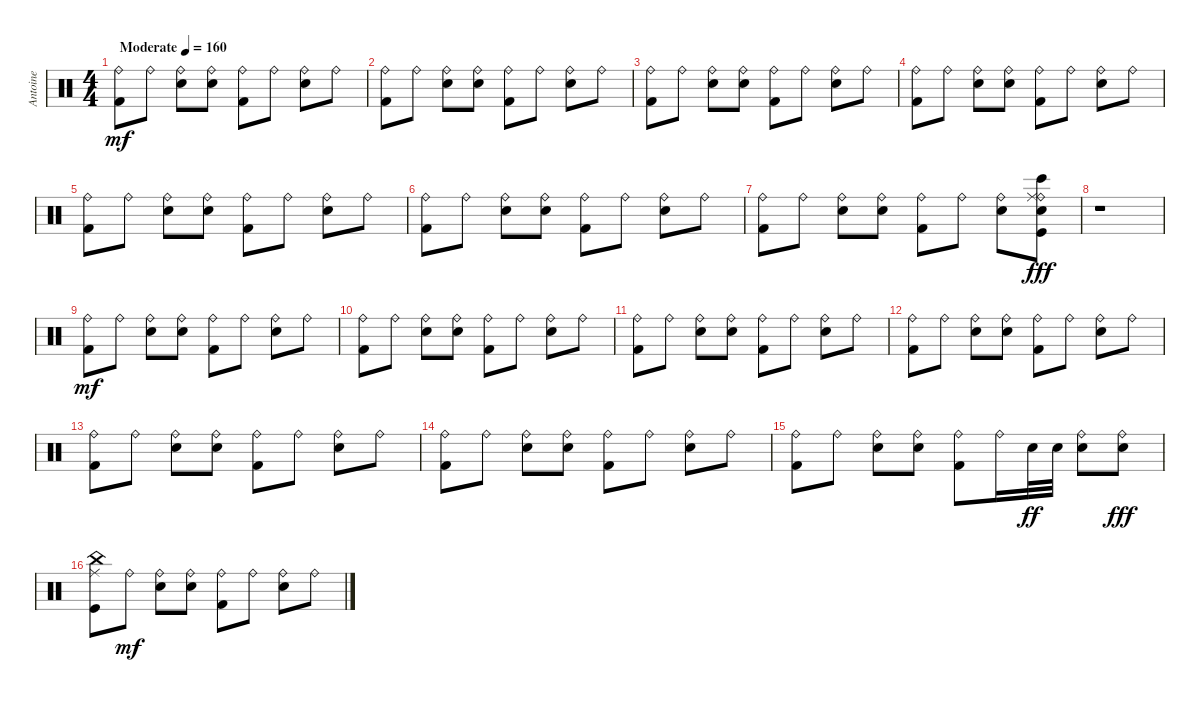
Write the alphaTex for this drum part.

\track ("Antoine" "Antoine") {instrument percussion}
\staff {score}
\articulation defaults
\ts (4 4)
\tempo (160 "Moderate")
\clef neutral
\ks c
("Kick (hit) 2" "Ride (bell)").8{dy mf} "Ride (bell)".8 ("Electric Snare (hit)" "Ride (bell)").8 ("Electric Snare (hit)" "Ride (bell)").8 ("Kick (hit) 2" "Ride (bell)").8 "Ride (bell)".8 ("Electric Snare (hit)" "Ride (bell)").8 "Ride (bell)".8 |
("Kick (hit) 2" "Ride (bell)").8 "Ride (bell)".8 ("Electric Snare (hit)" "Ride (bell)").8 ("Electric Snare (hit)" "Ride (bell)").8 ("Kick (hit) 2" "Ride (bell)").8 "Ride (bell)".8 ("Electric Snare (hit)" "Ride (bell)").8 "Ride (bell)".8 |
("Kick (hit) 2" "Ride (bell)").8 "Ride (bell)".8 ("Electric Snare (hit)" "Ride (bell)").8 ("Electric Snare (hit)" "Ride (bell)").8 ("Kick (hit) 2" "Ride (bell)").8 "Ride (bell)".8 ("Electric Snare (hit)" "Ride (bell)").8 "Ride (bell)".8 |
("Kick (hit) 2" "Ride (bell)").8 "Ride (bell)".8 ("Electric Snare (hit)" "Ride (bell)").8 ("Electric Snare (hit)" "Ride (bell)").8 ("Kick (hit) 2" "Ride (bell)").8 "Ride (bell)".8 ("Electric Snare (hit)" "Ride (bell)").8 "Ride (bell)".8 |
("Kick (hit) 2" "Ride (bell)").8 "Ride (bell)".8 ("Electric Snare (hit)" "Ride (bell)").8 ("Electric Snare (hit)" "Ride (bell)").8 ("Kick (hit) 2" "Ride (bell)").8 "Ride (bell)".8 ("Electric Snare (hit)" "Ride (bell)").8 "Ride (bell)".8 |
("Kick (hit) 2" "Ride (bell)").8 "Ride (bell)".8 ("Electric Snare (hit)" "Ride (bell)").8 ("Electric Snare (hit)" "Ride (bell)").8 ("Kick (hit) 2" "Ride (bell)").8 "Ride (bell)".8 ("Electric Snare (hit)" "Ride (bell)").8 "Ride (bell)".8 |
("Kick (hit) 2" "Ride (bell)").8 "Ride (bell)".8 ("Electric Snare (hit)" "Ride (bell)").8 ("Electric Snare (hit)" "Ride (bell)").8 ("Kick (hit) 2" "Ride (bell)").8 "Ride (bell)".8 ("Electric Snare (hit)" "Ride (bell)").8 ("Bongo High (hit)" "Electric Snare (hit)" "Kick (hit)" "Ride (bell)" "Ride (middle)").8{dy fff} |
r.1 |
("Kick (hit) 2" "Ride (bell)").8{dy mf} "Ride (bell)".8 ("Electric Snare (hit)" "Ride (bell)").8 ("Electric Snare (hit)" "Ride (bell)").8 ("Kick (hit) 2" "Ride (bell)").8 "Ride (bell)".8 ("Electric Snare (hit)" "Ride (bell)").8 "Ride (bell)".8 |
("Kick (hit) 2" "Ride (bell)").8 "Ride (bell)".8 ("Electric Snare (hit)" "Ride (bell)").8 ("Electric Snare (hit)" "Ride (bell)").8 ("Kick (hit) 2" "Ride (bell)").8 "Ride (bell)".8 ("Electric Snare (hit)" "Ride (bell)").8 "Ride (bell)".8 |
("Kick (hit) 2" "Ride (bell)").8 "Ride (bell)".8 ("Electric Snare (hit)" "Ride (bell)").8 ("Electric Snare (hit)" "Ride (bell)").8 ("Kick (hit) 2" "Ride (bell)").8 "Ride (bell)".8 ("Electric Snare (hit)" "Ride (bell)").8 "Ride (bell)".8 |
("Kick (hit) 2" "Ride (bell)").8 "Ride (bell)".8 ("Electric Snare (hit)" "Ride (bell)").8 ("Electric Snare (hit)" "Ride (bell)").8 ("Kick (hit) 2" "Ride (bell)").8 "Ride (bell)".8 ("Electric Snare (hit)" "Ride (bell)").8 "Ride (bell)".8 |
("Kick (hit) 2" "Ride (bell)").8 "Ride (bell)".8 ("Electric Snare (hit)" "Ride (bell)").8 ("Electric Snare (hit)" "Ride (bell)").8 ("Kick (hit) 2" "Ride (bell)").8 "Ride (bell)".8 ("Electric Snare (hit)" "Ride (bell)").8 "Ride (bell)".8 |
("Kick (hit) 2" "Ride (bell)").8 "Ride (bell)".8 ("Electric Snare (hit)" "Ride (bell)").8 ("Electric Snare (hit)" "Ride (bell)").8 ("Kick (hit) 2" "Ride (bell)").8 "Ride (bell)".8 ("Electric Snare (hit)" "Ride (bell)").8 "Ride (bell)".8 |
("Kick (hit) 2" "Ride (bell)").8 "Ride (bell)".8 ("Electric Snare (hit)" "Ride (bell)").8 ("Electric Snare (hit)" "Ride (bell)").8 ("Kick (hit) 2" "Ride (bell)").8 "Ride (bell)".16 "Electric Snare (hit)".32{dy ff} "Electric Snare (hit)".32 ("Electric Snare (hit)" "Ride (bell)").8 ("Ride (bell)" "Electric Snare (hit)").8{dy fff} |
("Kick (hit)" "Ride (middle)" "China (hit)").8 "Ride (bell)".8{dy mf} ("Electric Snare (hit)" "Ride (bell)").8 ("Electric Snare (hit)" "Ride (bell)").8 ("Kick (hit) 2" "Ride (bell)").8 "Ride (bell)".8 ("Electric Snare (hit)" "Ride (bell)").8 "Ride (bell)".8
